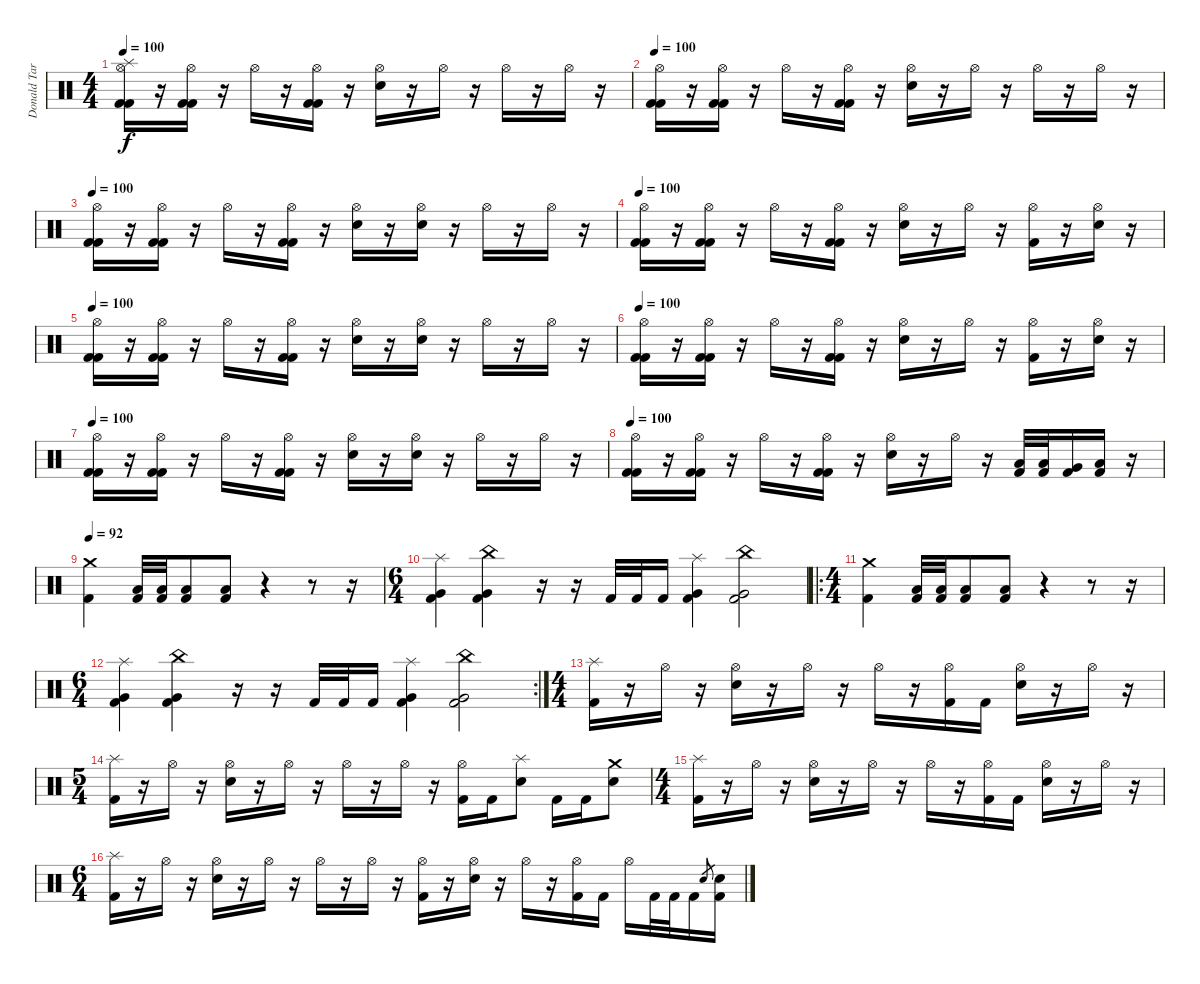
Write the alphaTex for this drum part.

\track ("Donald Tardy" "Donald Tar") {instrument percussion}
\staff {score}
\articulation defaults
\ts (4 4)
\tempo 100
\clef neutral
\ks c
("Hi-Hat (open)" "Splash (hit)" "Kick (hit) 2" "Kick (hit) 2").16{dy f} r.16 ("Hi-Hat (open)" "Kick (hit) 2" "Kick (hit) 2").16 r.16 "Hi-Hat (open)".16 r.16 ("Hi-Hat (open)" "Kick (hit) 2" "Kick (hit) 2").16 r.16 ("Hi-Hat (open)" "Electric Snare (hit)").16 r.16 "Hi-Hat (open)".16 r.16 "Hi-Hat (open)".16 r.16 "Hi-Hat (open)".16 r.16 |
\tempo 100
("Hi-Hat (open)" "Kick (hit) 2" "Kick (hit) 2").16 r.16 ("Hi-Hat (open)" "Kick (hit) 2" "Kick (hit) 2").16 r.16 "Hi-Hat (open)".16 r.16 ("Hi-Hat (open)" "Kick (hit) 2" "Kick (hit) 2").16 r.16 ("Hi-Hat (open)" "Electric Snare (hit)").16 r.16 "Hi-Hat (open)".16 r.16 "Hi-Hat (open)".16 r.16 "Hi-Hat (open)".16 r.16 |
\tempo 100
("Hi-Hat (open)" "Kick (hit) 2" "Kick (hit) 2").16 r.16 ("Hi-Hat (open)" "Kick (hit) 2" "Kick (hit) 2").16 r.16 "Hi-Hat (open)".16 r.16 ("Hi-Hat (open)" "Kick (hit) 2" "Kick (hit) 2").16 r.16 ("Hi-Hat (open)" "Electric Snare (hit)").16 r.16 ("Hi-Hat (open)" "Electric Snare (hit)").16 r.16 "Hi-Hat (open)".16 r.16 "Hi-Hat (open)".16 r.16 |
\tempo 100
("Hi-Hat (open)" "Kick (hit) 2" "Kick (hit) 2").16 r.16 ("Hi-Hat (open)" "Kick (hit) 2" "Kick (hit) 2").16 r.16 "Hi-Hat (open)".16 r.16 ("Hi-Hat (open)" "Kick (hit) 2" "Kick (hit) 2").16 r.16 ("Hi-Hat (open)" "Electric Snare (hit)").16 r.16 "Hi-Hat (open)".16 r.16 ("Hi-Hat (open)" "Kick (hit) 2").16 r.16 ("Hi-Hat (open)" "Electric Snare (hit)").16 r.16 |
\tempo 100
("Hi-Hat (open)" "Kick (hit) 2" "Kick (hit) 2").16 r.16 ("Hi-Hat (open)" "Kick (hit) 2" "Kick (hit) 2").16 r.16 "Hi-Hat (open)".16 r.16 ("Hi-Hat (open)" "Kick (hit) 2" "Kick (hit) 2").16 r.16 ("Hi-Hat (open)" "Electric Snare (hit)").16 r.16 ("Hi-Hat (open)" "Electric Snare (hit)").16 r.16 "Hi-Hat (open)".16 r.16 "Hi-Hat (open)".16 r.16 |
\tempo 100
("Hi-Hat (open)" "Kick (hit) 2" "Kick (hit) 2").16 r.16 ("Hi-Hat (open)" "Kick (hit) 2" "Kick (hit) 2").16 r.16 "Hi-Hat (open)".16 r.16 ("Hi-Hat (open)" "Kick (hit) 2" "Kick (hit) 2").16 r.16 ("Hi-Hat (open)" "Electric Snare (hit)").16 r.16 "Hi-Hat (open)".16 r.16 ("Hi-Hat (open)" "Kick (hit) 2").16 r.16 ("Hi-Hat (open)" "Electric Snare (hit)").16 r.16 |
\tempo 100
("Hi-Hat (open)" "Kick (hit) 2" "Kick (hit) 2").16 r.16 ("Hi-Hat (open)" "Kick (hit) 2" "Kick (hit) 2").16 r.16 "Hi-Hat (open)".16 r.16 ("Hi-Hat (open)" "Kick (hit) 2" "Kick (hit) 2").16 r.16 ("Hi-Hat (open)" "Electric Snare (hit)").16 r.16 ("Hi-Hat (open)" "Electric Snare (hit)").16 r.16 "Hi-Hat (open)".16 r.16 "Hi-Hat (open)".16 r.16 |
\tempo 100
("Hi-Hat (open)" "Kick (hit) 2" "Kick (hit) 2").16 r.16 ("Hi-Hat (open)" "Kick (hit) 2" "Kick (hit) 2").16 r.16 "Hi-Hat (open)".16 r.16 ("Hi-Hat (open)" "Kick (hit) 2" "Kick (hit) 2").16 r.16 ("Hi-Hat (open)" "Electric Snare (hit)").16 r.16 "Hi-Hat (open)".16 r.16 ("Low Tom (hit)" "Kick (hit) 2").32 ("Low Tom (hit)" "Kick (hit) 2").32 ("Very Low Tom (hit)" "Kick (hit) 2").16 ("Low Floor Tom (hit)" "Kick (hit) 2").16 r.16 |
\tempo 92
("Crash medium (hit)" "Kick (hit) 2").4 ("Low Floor Tom (hit)" "Kick (hit) 2").32 ("Low Floor Tom (hit)" "Kick (hit) 2").32 ("Low Floor Tom (hit)" "Kick (hit) 2").8 ("Low Floor Tom (hit)" "Kick (hit) 2").8 r.4 r.8 r.16 |
\ts (6 4)
("Splash (hit)" "Very Low Tom (hit)" "Kick (hit) 2").4 ("China (hit)" "Very Low Tom (hit)" "Kick (hit) 2").4 r.16 r.16 "Kick (hit) 2".32 "Kick (hit) 2".32 "Kick (hit) 2".16 ("Splash (hit)" "Very Low Tom (hit)" "Kick (hit) 2").4 ("China (hit)" "Very Low Tom (hit)" "Kick (hit) 2").2 |
\ro
\ts (4 4)
("Crash medium (hit)" "Kick (hit) 2").4 ("Low Floor Tom (hit)" "Kick (hit) 2").32 ("Low Floor Tom (hit)" "Kick (hit) 2").32 ("Low Floor Tom (hit)" "Kick (hit) 2").8 ("Low Floor Tom (hit)" "Kick (hit) 2").8 r.4 r.8 r.16 |
\rc 2
\ts (6 4)
("Splash (hit)" "Very Low Tom (hit)" "Kick (hit) 2").4 ("China (hit)" "Very Low Tom (hit)" "Kick (hit) 2").4 r.16 r.16 "Kick (hit) 2".32 "Kick (hit) 2".32 "Kick (hit) 2".16 ("Splash (hit)" "Very Low Tom (hit)" "Kick (hit) 2").4 ("China (hit)" "Very Low Tom (hit)" "Kick (hit) 2").2 |
\ts (4 4)
("Splash (hit)" "Kick (hit) 2").16 r.16 "Hi-Hat (open)".16 r.16 ("Hi-Hat (open)" "Electric Snare (hit)").16 r.16 "Hi-Hat (open)".16 r.16 "Hi-Hat (open)".16 r.16 ("Hi-Hat (open)" "Kick (hit) 2").16 "Kick (hit) 2".16 ("Hi-Hat (open)" "Electric Snare (hit)").16 r.16 "Hi-Hat (open)".16 r.16 |
\ts (5 4)
("Splash (hit)" "Kick (hit) 2").16 r.16 "Hi-Hat (open)".16 r.16 ("Hi-Hat (open)" "Electric Snare (hit)").16 r.16 "Hi-Hat (open)".16 r.16 "Hi-Hat (open)".16 r.16 "Hi-Hat (open)".16 r.16 ("Hi-Hat (open)" "Kick (hit) 2").16 "Kick (hit) 2".16 ("Splash (hit)" "Electric Snare (hit)").8 "Kick (hit) 2".16 "Kick (hit) 2".16 ("Crash medium (hit)" "Electric Snare (hit)").8 |
\ts (4 4)
("Splash (hit)" "Kick (hit) 2").16 r.16 "Hi-Hat (open)".16 r.16 ("Hi-Hat (open)" "Electric Snare (hit)").16 r.16 "Hi-Hat (open)".16 r.16 "Hi-Hat (open)".16 r.16 ("Hi-Hat (open)" "Kick (hit) 2").16 "Kick (hit) 2".16 ("Hi-Hat (open)" "Electric Snare (hit)").16 r.16 "Hi-Hat (open)".16 r.16 |
\ts (6 4)
("Splash (hit)" "Kick (hit) 2").16 r.16 "Hi-Hat (open)".16 r.16 ("Hi-Hat (open)" "Electric Snare (hit)").16 r.16 "Hi-Hat (open)".16 r.16 "Hi-Hat (open)".16 r.16 "Hi-Hat (open)".16 r.16 ("Hi-Hat (open)" "Kick (hit) 2").16 r.16 ("Hi-Hat (open)" "Electric Snare (hit)").16 r.16 "Hi-Hat (open)".16 r.16 ("Hi-Hat (open)" "Kick (hit) 2").16 "Kick (hit) 2".16 "Hi-Hat (open)".16 "Kick (hit) 2".32 "Kick (hit) 2".32 "Kick (hit) 2".16 "Electric Snare (hit)".8{gr} ("Electric Snare (hit)" "Kick (hit) 2").16
